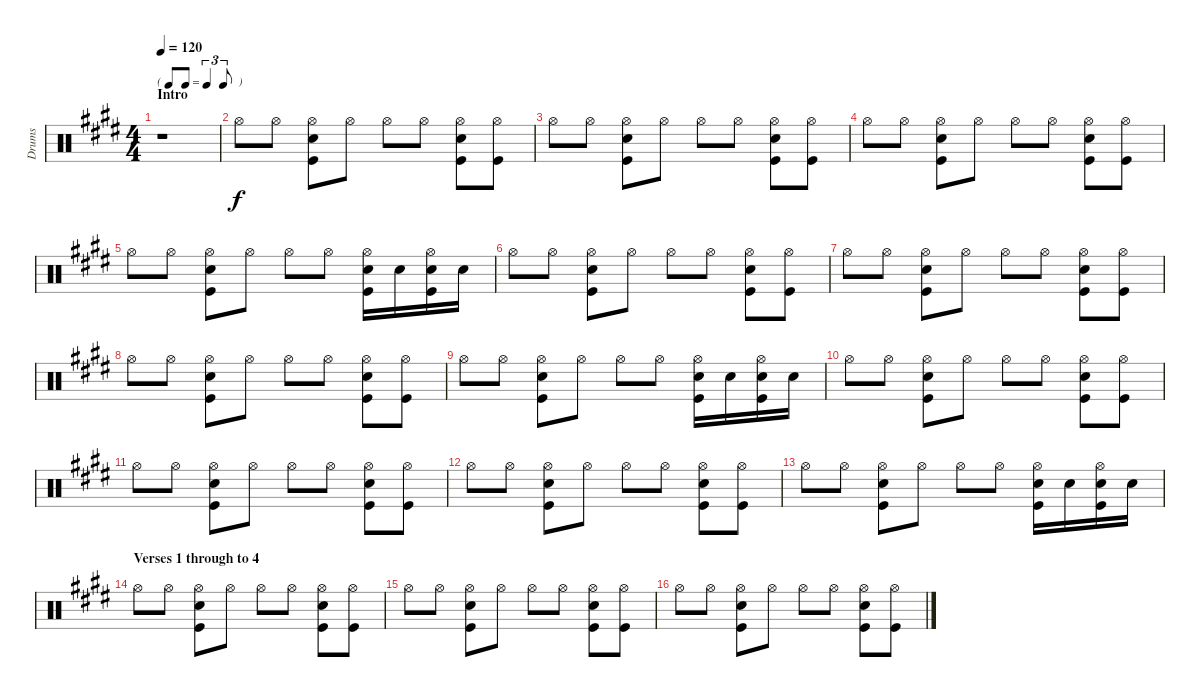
\track ("Drums" "Drums") {instrument percussion}
\staff {score}
\articulation defaults
\ts (4 4)
\tf triplet8th
\section ("" "Intro")
\tempo 120
\clef neutral
\ks e
r.1{dy f} |
"Hi-Hat (open)".8 "Hi-Hat (open)".8 ("Kick (hit)" "Electric Snare (hit)" "Hi-Hat (open)").8 "Hi-Hat (open)".8 "Hi-Hat (open)".8 "Hi-Hat (open)".8 ("Kick (hit)" "Electric Snare (hit)" "Hi-Hat (open)").8 ("Kick (hit)" "Hi-Hat (open)").8 |
"Hi-Hat (open)".8 "Hi-Hat (open)".8 ("Kick (hit)" "Electric Snare (hit)" "Hi-Hat (open)").8 "Hi-Hat (open)".8 "Hi-Hat (open)".8 "Hi-Hat (open)".8 ("Kick (hit)" "Electric Snare (hit)" "Hi-Hat (open)").8 ("Kick (hit)" "Hi-Hat (open)").8 |
"Hi-Hat (open)".8 "Hi-Hat (open)".8 ("Kick (hit)" "Electric Snare (hit)" "Hi-Hat (open)").8 "Hi-Hat (open)".8 "Hi-Hat (open)".8 "Hi-Hat (open)".8 ("Kick (hit)" "Electric Snare (hit)" "Hi-Hat (open)").8 ("Kick (hit)" "Hi-Hat (open)").8 |
"Hi-Hat (open)".8 "Hi-Hat (open)".8 ("Kick (hit)" "Electric Snare (hit)" "Hi-Hat (open)").8 "Hi-Hat (open)".8 "Hi-Hat (open)".8 "Hi-Hat (open)".8 ("Kick (hit)" "Electric Snare (hit)" "Hi-Hat (open)").16 "Electric Snare (hit)".16 ("Electric Snare (hit)" "Kick (hit)" "Hi-Hat (open)").16 "Electric Snare (hit)".16 |
"Hi-Hat (open)".8 "Hi-Hat (open)".8 ("Kick (hit)" "Electric Snare (hit)" "Hi-Hat (open)").8 "Hi-Hat (open)".8 "Hi-Hat (open)".8 "Hi-Hat (open)".8 ("Kick (hit)" "Electric Snare (hit)" "Hi-Hat (open)").8 ("Kick (hit)" "Hi-Hat (open)").8 |
"Hi-Hat (open)".8 "Hi-Hat (open)".8 ("Kick (hit)" "Electric Snare (hit)" "Hi-Hat (open)").8 "Hi-Hat (open)".8 "Hi-Hat (open)".8 "Hi-Hat (open)".8 ("Kick (hit)" "Electric Snare (hit)" "Hi-Hat (open)").8 ("Kick (hit)" "Hi-Hat (open)").8 |
"Hi-Hat (open)".8 "Hi-Hat (open)".8 ("Kick (hit)" "Electric Snare (hit)" "Hi-Hat (open)").8 "Hi-Hat (open)".8 "Hi-Hat (open)".8 "Hi-Hat (open)".8 ("Kick (hit)" "Electric Snare (hit)" "Hi-Hat (open)").8 ("Kick (hit)" "Hi-Hat (open)").8 |
"Hi-Hat (open)".8 "Hi-Hat (open)".8 ("Kick (hit)" "Electric Snare (hit)" "Hi-Hat (open)").8 "Hi-Hat (open)".8 "Hi-Hat (open)".8 "Hi-Hat (open)".8 ("Kick (hit)" "Electric Snare (hit)" "Hi-Hat (open)").16 "Electric Snare (hit)".16 ("Electric Snare (hit)" "Kick (hit)" "Hi-Hat (open)").16 "Electric Snare (hit)".16 |
"Hi-Hat (open)".8 "Hi-Hat (open)".8 ("Kick (hit)" "Electric Snare (hit)" "Hi-Hat (open)").8 "Hi-Hat (open)".8 "Hi-Hat (open)".8 "Hi-Hat (open)".8 ("Kick (hit)" "Electric Snare (hit)" "Hi-Hat (open)").8 ("Kick (hit)" "Hi-Hat (open)").8 |
"Hi-Hat (open)".8 "Hi-Hat (open)".8 ("Kick (hit)" "Electric Snare (hit)" "Hi-Hat (open)").8 "Hi-Hat (open)".8 "Hi-Hat (open)".8 "Hi-Hat (open)".8 ("Kick (hit)" "Electric Snare (hit)" "Hi-Hat (open)").8 ("Kick (hit)" "Hi-Hat (open)").8 |
"Hi-Hat (open)".8 "Hi-Hat (open)".8 ("Kick (hit)" "Electric Snare (hit)" "Hi-Hat (open)").8 "Hi-Hat (open)".8 "Hi-Hat (open)".8 "Hi-Hat (open)".8 ("Kick (hit)" "Electric Snare (hit)" "Hi-Hat (open)").8 ("Kick (hit)" "Hi-Hat (open)").8 |
"Hi-Hat (open)".8 "Hi-Hat (open)".8 ("Kick (hit)" "Electric Snare (hit)" "Hi-Hat (open)").8 "Hi-Hat (open)".8 "Hi-Hat (open)".8 "Hi-Hat (open)".8 ("Kick (hit)" "Electric Snare (hit)" "Hi-Hat (open)").16 "Electric Snare (hit)".16 ("Electric Snare (hit)" "Kick (hit)" "Hi-Hat (open)").16 "Electric Snare (hit)".16 |
\section ("" "Verses 1 through to 4")
"Hi-Hat (open)".8 "Hi-Hat (open)".8 ("Kick (hit)" "Electric Snare (hit)" "Hi-Hat (open)").8 "Hi-Hat (open)".8 "Hi-Hat (open)".8 "Hi-Hat (open)".8 ("Kick (hit)" "Electric Snare (hit)" "Hi-Hat (open)").8 ("Kick (hit)" "Hi-Hat (open)").8 |
"Hi-Hat (open)".8 "Hi-Hat (open)".8 ("Kick (hit)" "Electric Snare (hit)" "Hi-Hat (open)").8 "Hi-Hat (open)".8 "Hi-Hat (open)".8 "Hi-Hat (open)".8 ("Kick (hit)" "Electric Snare (hit)" "Hi-Hat (open)").8 ("Kick (hit)" "Hi-Hat (open)").8 |
"Hi-Hat (open)".8 "Hi-Hat (open)".8 ("Kick (hit)" "Electric Snare (hit)" "Hi-Hat (open)").8 "Hi-Hat (open)".8 "Hi-Hat (open)".8 "Hi-Hat (open)".8 ("Kick (hit)" "Electric Snare (hit)" "Hi-Hat (open)").8 ("Kick (hit)" "Hi-Hat (open)").8
